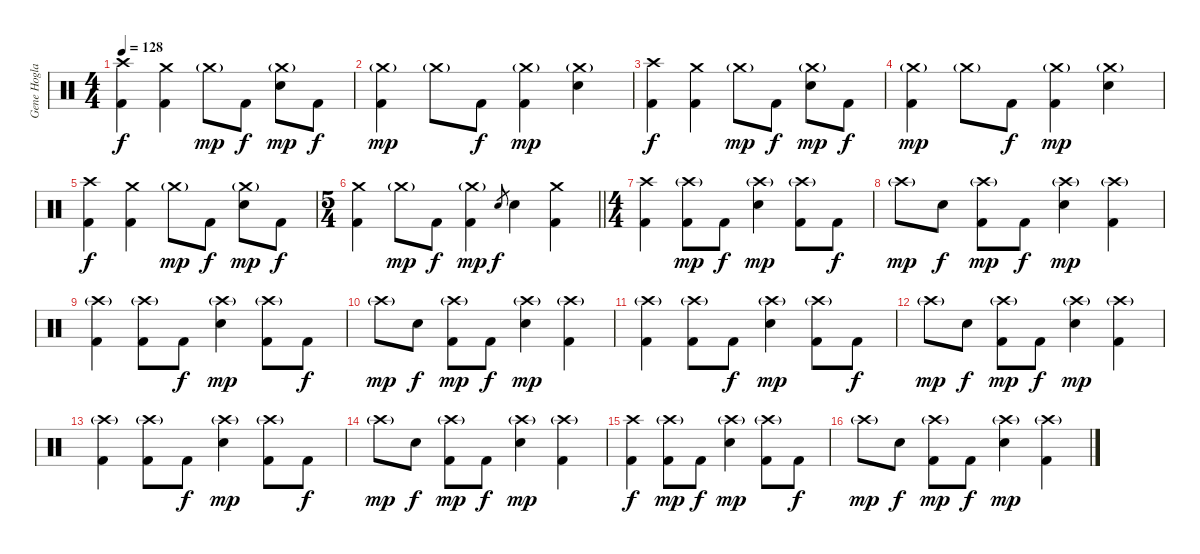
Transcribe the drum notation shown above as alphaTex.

\track ("Gene Hoglan" "Gene Hogla") {instrument percussion}
\staff {score}
\articulation defaults
\ts (4 4)
\tempo 128
\clef neutral
\ks c
("Crash high (hit)" "Kick (hit) 2").4{dy f} ("Crash medium (hit)" "Kick (hit) 2").4 "Crash medium (hit)"{g}.8{dy mp} "Kick (hit) 2".8{dy f} ("Crash medium (hit)"{g} "Electric Snare (hit)").8{dy mp} "Kick (hit) 2".8{dy f} |
("Crash medium (hit)"{g} "Kick (hit) 2").4{dy mp} "Crash medium (hit)"{g}.8 "Kick (hit) 2".8{dy f} ("Crash medium (hit)"{g} "Kick (hit) 2").4{dy mp} ("Crash medium (hit)"{g} "Electric Snare (hit)").4 |
("Crash high (hit)" "Kick (hit) 2").4{dy f} ("Crash medium (hit)" "Kick (hit) 2").4 "Crash medium (hit)"{g}.8{dy mp} "Kick (hit) 2".8{dy f} ("Crash medium (hit)"{g} "Electric Snare (hit)").8{dy mp} "Kick (hit) 2".8{dy f} |
("Crash medium (hit)"{g} "Kick (hit) 2").4{dy mp} "Crash medium (hit)"{g}.8 "Kick (hit) 2".8{dy f} ("Crash medium (hit)"{g} "Kick (hit) 2").4{dy mp} ("Crash medium (hit)"{g} "Electric Snare (hit)").4 |
("Crash high (hit)" "Kick (hit) 2").4{dy f} ("Crash medium (hit)" "Kick (hit) 2").4 "Crash medium (hit)"{g}.8{dy mp} "Kick (hit) 2".8{dy f} ("Crash medium (hit)"{g} "Electric Snare (hit)").8{dy mp} "Kick (hit) 2".8{dy f} |
\ts (5 4)
\barLineRight lightlight
("Crash medium (hit)" "Kick (hit) 2").4 "Crash medium (hit)"{g}.8{dy mp} "Kick (hit) 2".8{dy f} ("Crash medium (hit)"{g} "Kick (hit) 2").4{dy mp} "Electric Snare (hit)".8{gr dy f} "Electric Snare (hit)".4 ("Crash medium (hit)" "Kick (hit) 2").4 |
\ts (4 4)
("Crash high (hit)" "Kick (hit) 2").4 ("Crash high (hit)"{g} "Kick (hit) 2").8{dy mp} "Kick (hit) 2".8{dy f} ("Crash high (hit)"{g} "Electric Snare (hit)").4{dy mp} ("Crash high (hit)"{g} "Kick (hit) 2").8 "Kick (hit) 2".8{dy f} |
"Crash high (hit)"{g}.8{dy mp} "Electric Snare (hit)".8{dy f} ("Crash high (hit)"{g} "Kick (hit) 2").8{dy mp} "Kick (hit) 2".8{dy f} ("Crash high (hit)"{g} "Electric Snare (hit)").4{dy mp} ("Crash high (hit)"{g} "Kick (hit) 2").4 |
("Crash high (hit)"{g} "Kick (hit) 2").4 ("Crash high (hit)"{g} "Kick (hit) 2").8 "Kick (hit) 2".8{dy f} ("Crash high (hit)"{g} "Electric Snare (hit)").4{dy mp} ("Crash high (hit)"{g} "Kick (hit) 2").8 "Kick (hit) 2".8{dy f} |
"Crash high (hit)"{g}.8{dy mp} "Electric Snare (hit)".8{dy f} ("Crash high (hit)"{g} "Kick (hit) 2").8{dy mp} "Kick (hit) 2".8{dy f} ("Crash high (hit)"{g} "Electric Snare (hit)").4{dy mp} ("Crash high (hit)"{g} "Kick (hit) 2").4 |
("Crash high (hit)"{g} "Kick (hit) 2").4 ("Crash high (hit)"{g} "Kick (hit) 2").8 "Kick (hit) 2".8{dy f} ("Crash high (hit)"{g} "Electric Snare (hit)").4{dy mp} ("Crash high (hit)"{g} "Kick (hit) 2").8 "Kick (hit) 2".8{dy f} |
"Crash high (hit)"{g}.8{dy mp} "Electric Snare (hit)".8{dy f} ("Crash high (hit)"{g} "Kick (hit) 2").8{dy mp} "Kick (hit) 2".8{dy f} ("Crash high (hit)"{g} "Electric Snare (hit)").4{dy mp} ("Crash high (hit)"{g} "Kick (hit) 2").4 |
("Crash high (hit)"{g} "Kick (hit) 2").4 ("Crash high (hit)"{g} "Kick (hit) 2").8 "Kick (hit) 2".8{dy f} ("Crash high (hit)"{g} "Electric Snare (hit)").4{dy mp} ("Crash high (hit)"{g} "Kick (hit) 2").8 "Kick (hit) 2".8{dy f} |
"Crash high (hit)"{g}.8{dy mp} "Electric Snare (hit)".8{dy f} ("Crash high (hit)"{g} "Kick (hit) 2").8{dy mp} "Kick (hit) 2".8{dy f} ("Crash high (hit)"{g} "Electric Snare (hit)").4{dy mp} ("Crash high (hit)"{g} "Kick (hit) 2").4 |
("Crash high (hit)" "Kick (hit) 2").4{dy f} ("Crash high (hit)"{g} "Kick (hit) 2").8{dy mp} "Kick (hit) 2".8{dy f} ("Crash high (hit)"{g} "Electric Snare (hit)").4{dy mp} ("Crash high (hit)"{g} "Kick (hit) 2").8 "Kick (hit) 2".8{dy f} |
"Crash high (hit)"{g}.8{dy mp} "Electric Snare (hit)".8{dy f} ("Crash high (hit)"{g} "Kick (hit) 2").8{dy mp} "Kick (hit) 2".8{dy f} ("Crash high (hit)"{g} "Electric Snare (hit)").4{dy mp} ("Crash high (hit)"{g} "Kick (hit) 2").4
